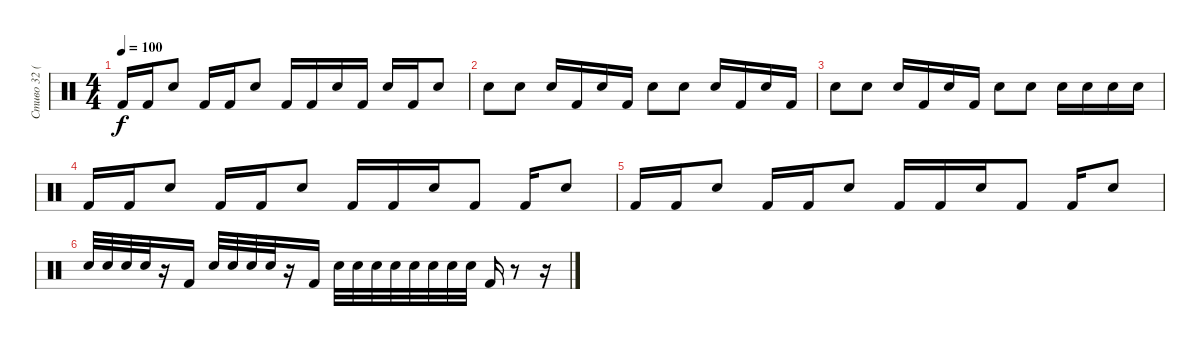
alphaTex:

\track ("Стиво 32 (Ударные)" "Стиво 32 (") {instrument percussion}
\staff {score}
\articulation defaults
\ts (4 4)
\tempo 100
\clef neutral
\ks c "Kick (hit) 2".16{dy f} "Kick (hit) 2".16 "Electric Snare (hit)".8 "Kick (hit) 2".16 "Kick (hit) 2".16 "Electric Snare (hit)".8 "Kick (hit) 2".16 "Kick (hit) 2".16 "Electric Snare (hit)".16 "Kick (hit) 2".16 "Electric Snare (hit)".16 "Kick (hit) 2".16 "Electric Snare (hit)".8
|
"Electric Snare (hit)".8 "Electric Snare (hit)".8 "Electric Snare (hit)".16 "Kick (hit) 2".16 "Electric Snare (hit)".16 "Kick (hit) 2".16 "Electric Snare (hit)".8 "Electric Snare (hit)".8 "Electric Snare (hit)".16 "Kick (hit) 2".16 "Electric Snare (hit)".16 "Kick (hit) 2".16 |
"Electric Snare (hit)".8 "Electric Snare (hit)".8 "Electric Snare (hit)".16 "Kick (hit) 2".16 "Electric Snare (hit)".16 "Kick (hit) 2".16 "Electric Snare (hit)".8 "Electric Snare (hit)".8 "Electric Snare (hit)".16 "Electric Snare (hit)".16 "Electric Snare (hit)".16 "Electric Snare (hit)".16 |
"Kick (hit) 2".16 "Kick (hit) 2".16 "Electric Snare (hit)".8 "Kick (hit) 2".16 "Kick (hit) 2".16 "Electric Snare (hit)".8 "Kick (hit) 2".16 "Kick (hit) 2".16 "Electric Snare (hit)".16 "Kick (hit) 2".8 "Kick (hit) 2".16 "Electric Snare (hit)".8 |
"Kick (hit) 2".16 "Kick (hit) 2".16 "Electric Snare (hit)".8 "Kick (hit) 2".16 "Kick (hit) 2".16 "Electric Snare (hit)".8 "Kick (hit) 2".16 "Kick (hit) 2".16 "Electric Snare (hit)".16 "Kick (hit) 2".8 "Kick (hit) 2".16 "Electric Snare (hit)".8 |
"Electric Snare (hit)".32 "Electric Snare (hit)".32 "Electric Snare (hit)".32 "Electric Snare (hit)".32 r.16 "Kick (hit) 2".16 "Electric Snare (hit)".32 "Electric Snare (hit)".32 "Electric Snare (hit)".32 "Electric Snare (hit)".32 r.16 "Kick (hit) 2".16 "Electric Snare (hit)".32 "Electric Snare (hit)".32 "Electric Snare (hit)".32 "Electric Snare (hit)".32 "Electric Snare (hit)".32 "Electric Snare (hit)".32 "Electric Snare (hit)".32 "Electric Snare (hit)".32 "Kick (hit) 2".16 r.8 r.16
